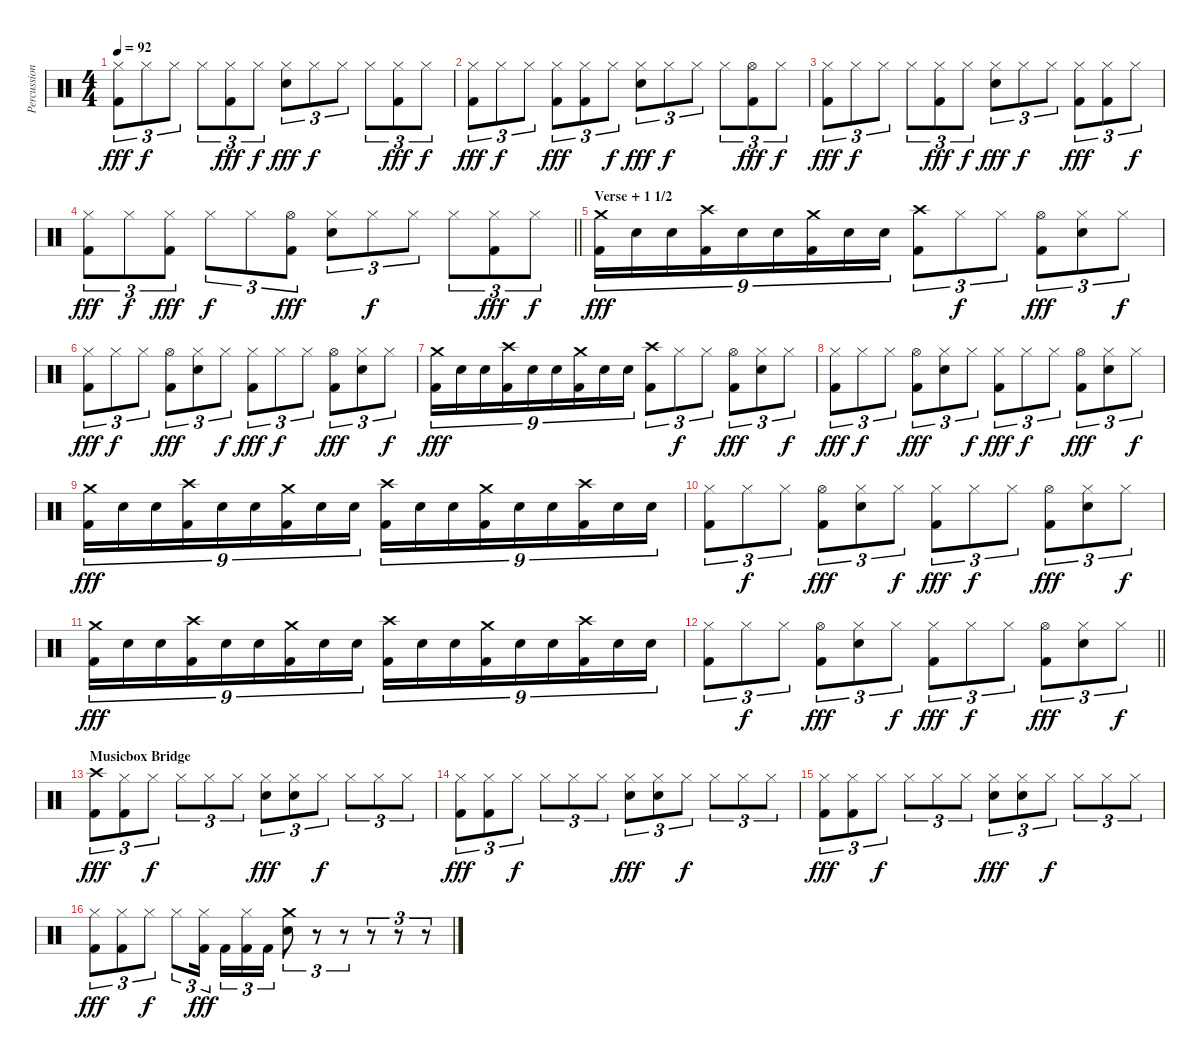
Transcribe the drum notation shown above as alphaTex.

\track ("Percussions" "Percussion") {instrument percussion}
\staff {score}
\articulation defaults
\ts (4 4)
\tempo 92
\clef neutral
\ks c
("Hi-Hat (closed)" "Kick (hit) 2").8{tu (3 2) dy fff} "Hi-Hat (closed)".8{tu (3 2) dy f} "Hi-Hat (closed)".8{tu (3 2)} "Hi-Hat (closed)".8{tu (3 2)} ("Hi-Hat (closed)" "Kick (hit) 2").8{tu (3 2) dy fff} "Hi-Hat (closed)".8{tu (3 2) dy f} ("Hi-Hat (closed)" "Snare (hit) 2").8{tu (3 2) dy fff} "Hi-Hat (closed)".8{tu (3 2) dy f} "Hi-Hat (closed)".8{tu (3 2)} "Hi-Hat (closed)".8{tu (3 2)} ("Hi-Hat (closed)" "Kick (hit) 2").8{tu (3 2) dy fff} "Hi-Hat (closed)".8{tu (3 2) dy f} |
("Hi-Hat (closed)" "Kick (hit) 2").8{tu (3 2) dy fff} "Hi-Hat (closed)".8{tu (3 2) dy f} "Hi-Hat (closed)".8{tu (3 2)} ("Hi-Hat (closed)" "Kick (hit) 2").8{tu (3 2) dy fff} ("Hi-Hat (closed)" "Kick (hit) 2").8{tu (3 2)} "Hi-Hat (closed)".8{tu (3 2) dy f} ("Hi-Hat (closed)" "Snare (hit) 2").8{tu (3 2) dy fff} "Hi-Hat (closed)".8{tu (3 2) dy f} "Hi-Hat (closed)".8{tu (3 2)} "Hi-Hat (closed)".8{tu (3 2)} ("Hi-Hat (open)" "Kick (hit) 2").8{tu (3 2) dy fff} "Hi-Hat (closed)".8{tu (3 2) dy f} |
("Hi-Hat (closed)" "Kick (hit) 2").8{tu (3 2) dy fff} "Hi-Hat (closed)".8{tu (3 2) dy f} "Hi-Hat (closed)".8{tu (3 2)} "Hi-Hat (closed)".8{tu (3 2)} ("Hi-Hat (closed)" "Kick (hit) 2").8{tu (3 2) dy fff} "Hi-Hat (closed)".8{tu (3 2) dy f} ("Hi-Hat (closed)" "Snare (hit) 2").8{tu (3 2) dy fff} "Hi-Hat (closed)".8{tu (3 2) dy f} "Hi-Hat (closed)".8{tu (3 2)} ("Hi-Hat (closed)" "Kick (hit) 2").8{tu (3 2) dy fff} ("Hi-Hat (closed)" "Kick (hit) 2").8{tu (3 2)} "Hi-Hat (closed)".8{tu (3 2) dy f} |
\barLineRight lightlight
("Hi-Hat (closed)" "Kick (hit) 2").8{tu (3 2) dy fff} "Hi-Hat (closed)".8{tu (3 2) dy f} ("Hi-Hat (closed)" "Kick (hit) 2").8{tu (3 2) dy fff} "Hi-Hat (closed)".8{tu (3 2) dy f} "Hi-Hat (closed)".8{tu (3 2)} ("Hi-Hat (open)" "Kick (hit) 2").8{tu (3 2) dy fff} ("Hi-Hat (closed)" "Snare (hit) 2").8{tu (3 2)} "Hi-Hat (closed)".8{tu (3 2) dy f} "Hi-Hat (closed)".8{tu (3 2)} "Hi-Hat (closed)".8{tu (3 2)} ("Hi-Hat (closed)" "Kick (hit) 2").8{tu (3 2) dy fff} "Hi-Hat (closed)".8{tu (3 2) dy f} |
\section ("" "Verse + 1 1/2")
("Crash medium (hit)" "Kick (hit) 2").16{tu (9 8) dy fff} "Snare (hit) 2".16{tu (9 8)} "Snare (hit) 2".16{tu (9 8)} ("Crash high (hit)" "Kick (hit) 2").16{tu (9 8)} "Snare (hit) 2".16{tu (9 8)} "Snare (hit) 2".16{tu (9 8)} ("Crash medium (hit)" "Kick (hit) 2").16{tu (9 8)} "Snare (hit) 2".16{tu (9 8)} "Snare (hit) 2".16{tu (9 8)} ("Crash high (hit)" "Kick (hit) 2").8{tu (3 2)} "Hi-Hat (closed)".8{tu (3 2) dy f} "Hi-Hat (closed)".8{tu (3 2)} ("Hi-Hat (open)" "Kick (hit) 2").8{tu (3 2) dy fff} ("Hi-Hat (closed)" "Snare (hit) 2").8{tu (3 2)} "Hi-Hat (closed)".8{tu (3 2) dy f} |
("Hi-Hat (closed)" "Kick (hit) 2").8{tu (3 2) dy fff} "Hi-Hat (closed)".8{tu (3 2) dy f} "Hi-Hat (closed)".8{tu (3 2)} ("Hi-Hat (open)" "Kick (hit) 2").8{tu (3 2) dy fff} ("Hi-Hat (closed)" "Snare (hit) 2").8{tu (3 2)} "Hi-Hat (closed)".8{tu (3 2) dy f} ("Hi-Hat (closed)" "Kick (hit) 2").8{tu (3 2) dy fff} "Hi-Hat (closed)".8{tu (3 2) dy f} "Hi-Hat (closed)".8{tu (3 2)} ("Hi-Hat (open)" "Kick (hit) 2").8{tu (3 2) dy fff} ("Hi-Hat (closed)" "Snare (hit) 2").8{tu (3 2)} "Hi-Hat (closed)".8{tu (3 2) dy f} |
("Crash medium (hit)" "Kick (hit) 2").16{tu (9 8) dy fff} "Snare (hit) 2".16{tu (9 8)} "Snare (hit) 2".16{tu (9 8)} ("Crash high (hit)" "Kick (hit) 2").16{tu (9 8)} "Snare (hit) 2".16{tu (9 8)} "Snare (hit) 2".16{tu (9 8)} ("Crash medium (hit)" "Kick (hit) 2").16{tu (9 8)} "Snare (hit) 2".16{tu (9 8)} "Snare (hit) 2".16{tu (9 8)} ("Crash high (hit)" "Kick (hit) 2").8{tu (3 2)} "Hi-Hat (closed)".8{tu (3 2) dy f} "Hi-Hat (closed)".8{tu (3 2)} ("Hi-Hat (open)" "Kick (hit) 2").8{tu (3 2) dy fff} ("Hi-Hat (closed)" "Snare (hit) 2").8{tu (3 2)} "Hi-Hat (closed)".8{tu (3 2) dy f} |
("Hi-Hat (closed)" "Kick (hit) 2").8{tu (3 2) dy fff} "Hi-Hat (closed)".8{tu (3 2) dy f} "Hi-Hat (closed)".8{tu (3 2)} ("Hi-Hat (open)" "Kick (hit) 2").8{tu (3 2) dy fff} ("Hi-Hat (closed)" "Snare (hit) 2").8{tu (3 2)} "Hi-Hat (closed)".8{tu (3 2) dy f} ("Hi-Hat (closed)" "Kick (hit) 2").8{tu (3 2) dy fff} "Hi-Hat (closed)".8{tu (3 2) dy f} "Hi-Hat (closed)".8{tu (3 2)} ("Hi-Hat (open)" "Kick (hit) 2").8{tu (3 2) dy fff} ("Hi-Hat (closed)" "Snare (hit) 2").8{tu (3 2)} "Hi-Hat (closed)".8{tu (3 2) dy f} |
("Crash medium (hit)" "Kick (hit) 2").16{tu (9 8) dy fff} "Snare (hit) 2".16{tu (9 8)} "Snare (hit) 2".16{tu (9 8)} ("Crash high (hit)" "Kick (hit) 2").16{tu (9 8)} "Snare (hit) 2".16{tu (9 8)} "Snare (hit) 2".16{tu (9 8)} ("Crash medium (hit)" "Kick (hit) 2").16{tu (9 8)} "Snare (hit) 2".16{tu (9 8)} "Snare (hit) 2".16{tu (9 8)} ("Crash high (hit)" "Kick (hit) 2").16{tu (9 8)} "Snare (hit) 2".16{tu (9 8)} "Snare (hit) 2".16{tu (9 8)} ("Crash medium (hit)" "Kick (hit) 2").16{tu (9 8)} "Snare (hit) 2".16{tu (9 8)} "Snare (hit) 2".16{tu (9 8)} ("Crash high (hit)" "Kick (hit) 2").16{tu (9 8)} "Snare (hit) 2".16{tu (9 8)} "Snare (hit) 2".16{tu (9 8)} |
("Hi-Hat (closed)" "Kick (hit) 2").8{tu (3 2)} "Hi-Hat (closed)".8{tu (3 2) dy f} "Hi-Hat (closed)".8{tu (3 2)} ("Hi-Hat (open)" "Kick (hit) 2").8{tu (3 2) dy fff} ("Hi-Hat (closed)" "Snare (hit) 2").8{tu (3 2)} "Hi-Hat (closed)".8{tu (3 2) dy f} ("Hi-Hat (closed)" "Kick (hit) 2").8{tu (3 2) dy fff} "Hi-Hat (closed)".8{tu (3 2) dy f} "Hi-Hat (closed)".8{tu (3 2)} ("Hi-Hat (open)" "Kick (hit) 2").8{tu (3 2) dy fff} ("Hi-Hat (closed)" "Snare (hit) 2").8{tu (3 2)} "Hi-Hat (closed)".8{tu (3 2) dy f} |
("Crash medium (hit)" "Kick (hit) 2").16{tu (9 8) dy fff} "Snare (hit) 2".16{tu (9 8)} "Snare (hit) 2".16{tu (9 8)} ("Crash high (hit)" "Kick (hit) 2").16{tu (9 8)} "Snare (hit) 2".16{tu (9 8)} "Snare (hit) 2".16{tu (9 8)} ("Crash medium (hit)" "Kick (hit) 2").16{tu (9 8)} "Snare (hit) 2".16{tu (9 8)} "Snare (hit) 2".16{tu (9 8)} ("Crash high (hit)" "Kick (hit) 2").16{tu (9 8)} "Snare (hit) 2".16{tu (9 8)} "Snare (hit) 2".16{tu (9 8)} ("Crash medium (hit)" "Kick (hit) 2").16{tu (9 8)} "Snare (hit) 2".16{tu (9 8)} "Snare (hit) 2".16{tu (9 8)} ("Crash high (hit)" "Kick (hit) 2").16{tu (9 8)} "Snare (hit) 2".16{tu (9 8)} "Snare (hit) 2".16{tu (9 8)} |
\barLineRight lightlight
("Hi-Hat (closed)" "Kick (hit) 2").8{tu (3 2)} "Hi-Hat (closed)".8{tu (3 2) dy f} "Hi-Hat (closed)".8{tu (3 2)} ("Hi-Hat (open)" "Kick (hit) 2").8{tu (3 2) dy fff} ("Hi-Hat (closed)" "Snare (hit) 2").8{tu (3 2)} "Hi-Hat (closed)".8{tu (3 2) dy f} ("Hi-Hat (closed)" "Kick (hit) 2").8{tu (3 2) dy fff} "Hi-Hat (closed)".8{tu (3 2) dy f} "Hi-Hat (closed)".8{tu (3 2)} ("Hi-Hat (open)" "Kick (hit) 2").8{tu (3 2) dy fff} ("Hi-Hat (closed)" "Snare (hit) 2").8{tu (3 2)} "Hi-Hat (closed)".8{tu (3 2) dy f} |
\section ("" "Musicbox Bridge")
("Crash high (hit)" "Kick (hit) 2").8{tu (3 2) dy fff} ("Hi-Hat (closed)" "Kick (hit) 2").8{tu (3 2)} "Hi-Hat (closed)".8{tu (3 2) dy f} "Hi-Hat (closed)".8{tu (3 2)} "Hi-Hat (closed)".8{tu (3 2)} "Hi-Hat (closed)".8{tu (3 2)} ("Hi-Hat (closed)" "Snare (hit) 2").8{tu (3 2) dy fff} ("Hi-Hat (closed)" "Snare (hit) 2").8{tu (3 2)} "Hi-Hat (closed)".8{tu (3 2) dy f} "Hi-Hat (closed)".8{tu (3 2)} "Hi-Hat (closed)".8{tu (3 2)} "Hi-Hat (closed)".8{tu (3 2)} |
("Hi-Hat (closed)" "Kick (hit) 2").8{tu (3 2) dy fff} ("Hi-Hat (closed)" "Kick (hit) 2").8{tu (3 2)} "Hi-Hat (closed)".8{tu (3 2) dy f} "Hi-Hat (closed)".8{tu (3 2)} "Hi-Hat (closed)".8{tu (3 2)} "Hi-Hat (closed)".8{tu (3 2)} ("Hi-Hat (closed)" "Snare (hit) 2").8{tu (3 2) dy fff} ("Hi-Hat (closed)" "Snare (hit) 2").8{tu (3 2)} "Hi-Hat (closed)".8{tu (3 2) dy f} "Hi-Hat (closed)".8{tu (3 2)} "Hi-Hat (closed)".8{tu (3 2)} "Hi-Hat (closed)".8{tu (3 2)} |
("Hi-Hat (closed)" "Kick (hit) 2").8{tu (3 2) dy fff} ("Hi-Hat (closed)" "Kick (hit) 2").8{tu (3 2)} "Hi-Hat (closed)".8{tu (3 2) dy f} "Hi-Hat (closed)".8{tu (3 2)} "Hi-Hat (closed)".8{tu (3 2)} "Hi-Hat (closed)".8{tu (3 2)} ("Hi-Hat (closed)" "Snare (hit) 2").8{tu (3 2) dy fff} ("Hi-Hat (closed)" "Snare (hit) 2").8{tu (3 2)} "Hi-Hat (closed)".8{tu (3 2) dy f} "Hi-Hat (closed)".8{tu (3 2)} "Hi-Hat (closed)".8{tu (3 2)} "Hi-Hat (closed)".8{tu (3 2)} |
("Hi-Hat (closed)" "Kick (hit) 2").8{tu (3 2) dy fff} ("Hi-Hat (closed)" "Kick (hit) 2").8{tu (3 2)} "Hi-Hat (closed)".8{tu (3 2) dy f} "Hi-Hat (closed)".8{tu (3 2)} ("Hi-Hat (closed)" "Kick (hit) 2").16{tu (3 2) dy fff beam splitsecondary} "Kick (hit) 2".16{tu (3 2)} ("Hi-Hat (closed)" "Kick (hit) 2").16{tu (3 2)} "Kick (hit) 2".16{tu (3 2)} ("Crash medium (hit)" "Snare (hit) 2").8{tu (3 2)} r.8{tu (3 2)} r.8{tu (3 2)} r.8{tu (3 2)} r.8{tu (3 2)} r.8{tu (3 2)}
